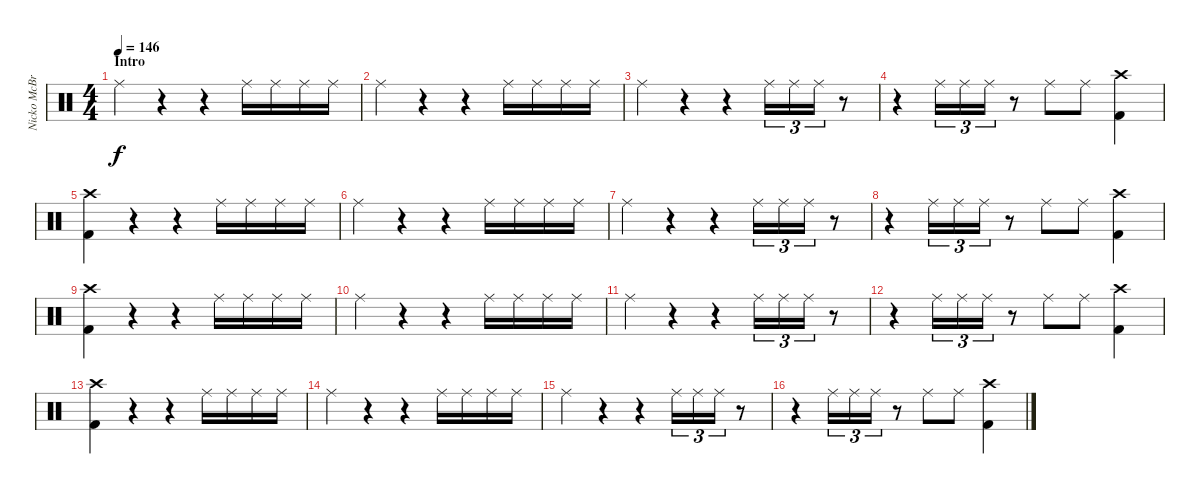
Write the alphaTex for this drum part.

\track ("Nicko McBrain" "Nicko McBr") {instrument percussion}
\staff {score}
\articulation defaults
\ts (4 4)
\section ("" "Intro")
\tempo 146
\clef neutral
\ks c "Ride (middle)".4{dy f}
r.4 r.4 "Ride (middle)".16 "Ride (middle)".16 "Ride (middle)".16 "Ride (middle)".16 |
"Ride (middle)".4 r.4 r.4 "Ride (middle)".16 "Ride (middle)".16 "Ride (middle)".16 "Ride (middle)".16 |
"Ride (middle)".4 r.4 r.4 "Ride (middle)".16{tu (3 2)} "Ride (middle)".16{tu (3 2)} "Ride (middle)".16{tu (3 2)} r.8 |
r.4 "Ride (middle)".16{tu (3 2)} "Ride (middle)".16{tu (3 2)} "Ride (middle)".16{tu (3 2)} r.8 "Ride (middle)".8 "Ride (middle)".8 ("Crash high (hit)" "Kick (hit) 2").4 |
("Crash high (hit)" "Kick (hit) 2").4 r.4 r.4 "Ride (middle)".16 "Ride (middle)".16 "Ride (middle)".16 "Ride (middle)".16 |
"Ride (middle)".4 r.4 r.4 "Ride (middle)".16 "Ride (middle)".16 "Ride (middle)".16 "Ride (middle)".16 |
"Ride (middle)".4 r.4 r.4 "Ride (middle)".16{tu (3 2)} "Ride (middle)".16{tu (3 2)} "Ride (middle)".16{tu (3 2)} r.8 |
r.4 "Ride (middle)".16{tu (3 2)} "Ride (middle)".16{tu (3 2)} "Ride (middle)".16{tu (3 2)} r.8 "Ride (middle)".8 "Ride (middle)".8 ("Crash high (hit)" "Kick (hit) 2").4 |
("Crash high (hit)" "Kick (hit) 2").4 r.4 r.4 "Ride (middle)".16 "Ride (middle)".16 "Ride (middle)".16 "Ride (middle)".16 |
"Ride (middle)".4 r.4 r.4 "Ride (middle)".16 "Ride (middle)".16 "Ride (middle)".16 "Ride (middle)".16 |
"Ride (middle)".4 r.4 r.4 "Ride (middle)".16{tu (3 2)} "Ride (middle)".16{tu (3 2)} "Ride (middle)".16{tu (3 2)} r.8 |
r.4 "Ride (middle)".16{tu (3 2)} "Ride (middle)".16{tu (3 2)} "Ride (middle)".16{tu (3 2)} r.8 "Ride (middle)".8 "Ride (middle)".8 ("Crash high (hit)" "Kick (hit) 2").4 |
("Crash high (hit)" "Kick (hit) 2").4 r.4 r.4 "Ride (middle)".16 "Ride (middle)".16 "Ride (middle)".16 "Ride (middle)".16 |
"Ride (middle)".4 r.4 r.4 "Ride (middle)".16 "Ride (middle)".16 "Ride (middle)".16 "Ride (middle)".16 |
"Ride (middle)".4 r.4 r.4 "Ride (middle)".16{tu (3 2)} "Ride (middle)".16{tu (3 2)} "Ride (middle)".16{tu (3 2)} r.8 |
r.4 "Ride (middle)".16{tu (3 2)} "Ride (middle)".16{tu (3 2)} "Ride (middle)".16{tu (3 2)} r.8 "Ride (middle)".8 "Ride (middle)".8 ("Crash high (hit)" "Kick (hit) 2").4
